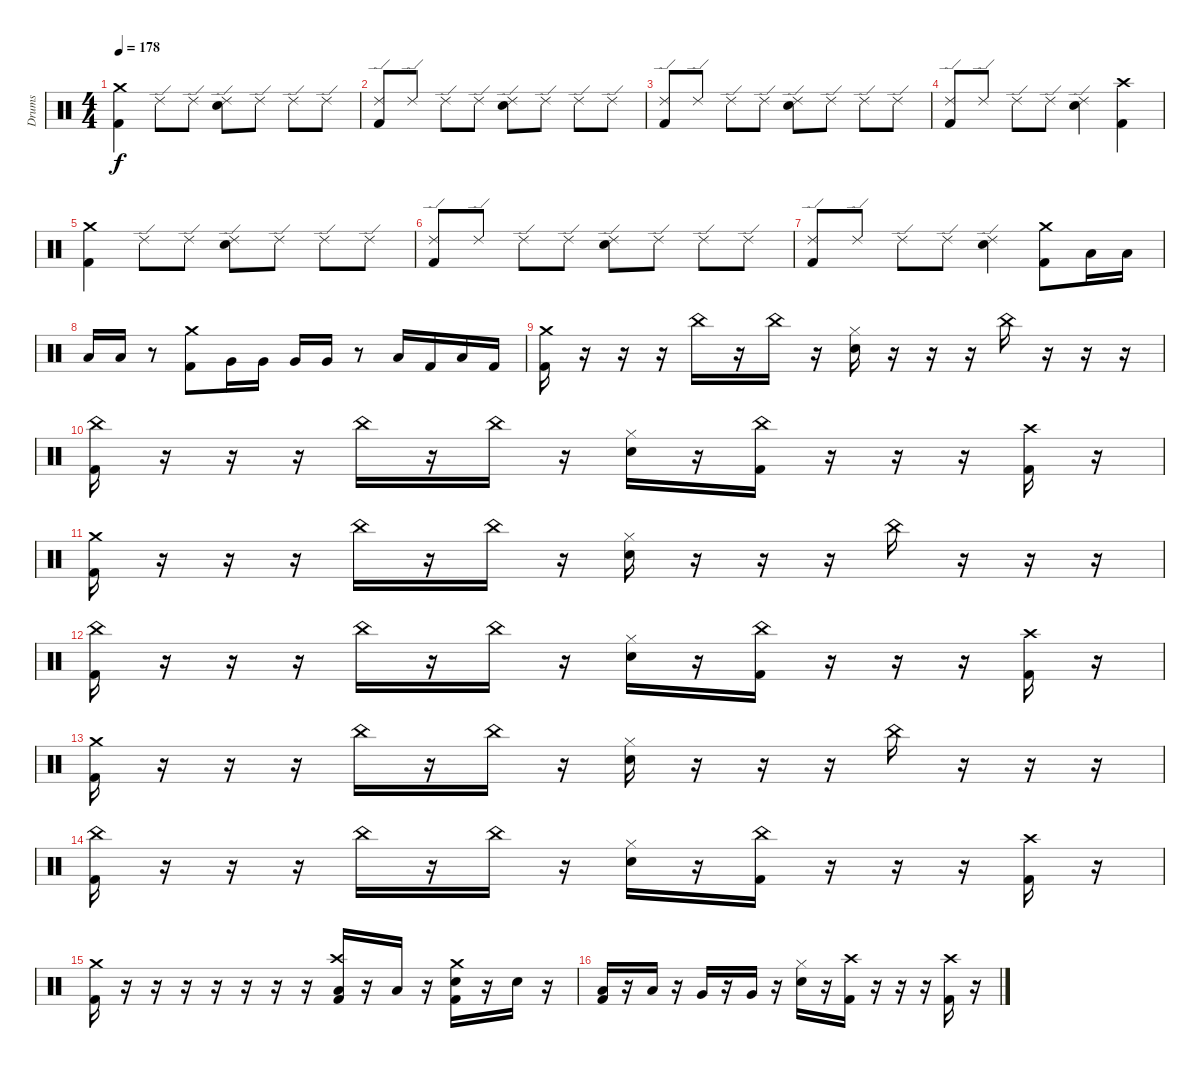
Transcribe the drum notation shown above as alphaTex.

\track ("Drums" "Drums") {instrument percussion}
\staff {score}
\articulation defaults
\ts (4 4)
\tempo 178
\clef neutral
\ks c
("Crash medium (hit)" "Kick (hit) 2").4{dy f} "Ride (edge) 2".8 "Ride (edge) 2".8 ("Ride (edge) 2" "Electric Snare (hit)").8 "Ride (edge) 2".8 "Ride (edge) 2".8 "Ride (edge) 2".8 |
("Ride (edge) 2" "Kick (hit) 2").8 "Ride (edge) 2".8 "Ride (edge) 2".8 "Ride (edge) 2".8 ("Ride (edge) 2" "Electric Snare (hit)").8 "Ride (edge) 2".8 "Ride (edge) 2".8 "Ride (edge) 2".8 |
("Ride (edge) 2" "Kick (hit) 2").8 "Ride (edge) 2".8 "Ride (edge) 2".8 "Ride (edge) 2".8 ("Ride (edge) 2" "Electric Snare (hit)").8 "Ride (edge) 2".8 "Ride (edge) 2".8 "Ride (edge) 2".8 |
("Ride (edge) 2" "Kick (hit) 2").8 "Ride (edge) 2".8 "Ride (edge) 2".8 "Ride (edge) 2".8 ("Ride (edge) 2" "Electric Snare (hit)").4 ("Crash high (hit)" "Kick (hit) 2").4 |
("Crash medium (hit)" "Kick (hit) 2").4 "Ride (edge) 2".8 "Ride (edge) 2".8 ("Ride (edge) 2" "Electric Snare (hit)").8 "Ride (edge) 2".8 "Ride (edge) 2".8 "Ride (edge) 2".8 |
("Ride (edge) 2" "Kick (hit) 2").8 "Ride (edge) 2".8 "Ride (edge) 2".8 "Ride (edge) 2".8 ("Ride (edge) 2" "Electric Snare (hit)").8 "Ride (edge) 2".8 "Ride (edge) 2".8 "Ride (edge) 2".8 |
("Ride (edge) 2" "Kick (hit) 2").8 "Ride (edge) 2".8 "Ride (edge) 2".8 "Ride (edge) 2".8 ("Ride (edge) 2" "Electric Snare (hit)").4 ("Crash medium (hit)" "Kick (hit) 2").8 "Low Tom (hit)".16 "Low Tom (hit)".16 |
"Low Tom (hit)".16 "Low Tom (hit)".16 r.8 ("Crash medium (hit)" "Kick (hit) 2").8 "Very Low Tom (hit)".16 "Very Low Tom (hit)".16 "Very Low Tom (hit)".16 "Very Low Tom (hit)".16 r.8 "Low Floor Tom (hit)".16 "Kick (hit) 2".16 "Low Floor Tom (hit)".16 "Kick (hit) 2".16 |
("Crash medium (hit)" "Kick (hit) 2").16{balance 8} r.16 r.16 r.16 "China (hit)".16 r.16 "China (hit)".16 r.16 ("Hi-Hat (closed)" "Electric Snare (hit)").16 r.16 r.16 r.16 "China (hit)".16 r.16 r.16 r.16 |
("China (hit)" "Kick (hit) 2").16 r.16 r.16 r.16 "China (hit)".16 r.16 "China (hit)".16 r.16 ("Hi-Hat (closed)" "Electric Snare (hit)").16 r.16 ("China (hit)" "Kick (hit) 2").16 r.16 r.16 r.16 ("Crash high (hit)" "Kick (hit) 2").16 r.16 |
("Crash medium (hit)" "Kick (hit) 2").16 r.16 r.16 r.16 "China (hit)".16 r.16 "China (hit)".16 r.16 ("Hi-Hat (closed)" "Electric Snare (hit)").16 r.16 r.16 r.16 "China (hit)".16 r.16 r.16 r.16 |
("China (hit)" "Kick (hit) 2").16 r.16 r.16 r.16 "China (hit)".16 r.16 "China (hit)".16 r.16 ("Hi-Hat (closed)" "Electric Snare (hit)").16 r.16 ("China (hit)" "Kick (hit) 2").16 r.16 r.16 r.16 ("Crash high (hit)" "Kick (hit) 2").16 r.16 |
("Crash medium (hit)" "Kick (hit) 2").16 r.16 r.16 r.16 "China (hit)".16 r.16 "China (hit)".16 r.16 ("Hi-Hat (closed)" "Electric Snare (hit)").16 r.16 r.16 r.16 "China (hit)".16 r.16 r.16 r.16 |
("China (hit)" "Kick (hit) 2").16 r.16 r.16 r.16 "China (hit)".16 r.16 "China (hit)".16 r.16 ("Hi-Hat (closed)" "Electric Snare (hit)").16 r.16 ("China (hit)" "Kick (hit) 2").16 r.16 r.16 r.16 ("Crash high (hit)" "Kick (hit) 2").16 r.16 |
("Crash medium (hit)" "Kick (hit) 2").16 r.16 r.16 r.16 r.16 r.16 r.16 r.16 ("Crash high (hit)" "Low Tom (hit)" "Kick (hit) 2").16 r.16 "Low Tom (hit)".16 r.16 ("Crash medium (hit)" "Electric Snare (hit)" "Kick (hit) 2").16 r.16 "Electric Snare (hit)".16 r.16 |
("Low Tom (hit)" "Kick (hit) 2").16 r.16 "Low Tom (hit)".16 r.16 "Very Low Tom (hit)".16 r.16 "Very Low Tom (hit)".16 r.16 ("Hi-Hat (closed)" "Electric Snare (hit)").16 r.16 ("Crash high (hit)" "Kick (hit) 2").16 r.16 r.16 r.16 ("Crash high (hit)" "Kick (hit) 2").16 r.16
